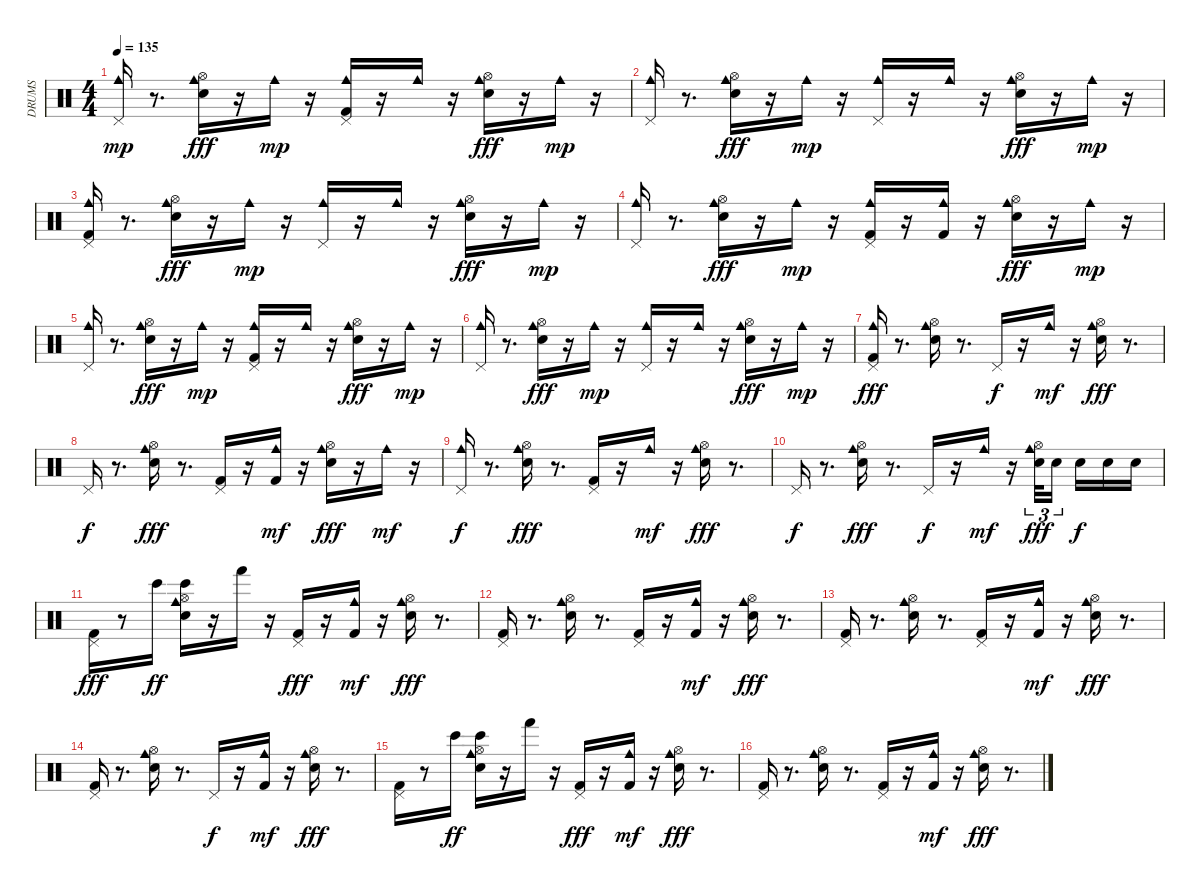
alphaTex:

\track ("DRUMS" "DRUMS") {instrument percussion}
\staff {score}
\articulation defaults
\ts (4 4)
\tempo 135
\clef neutral
\ks c
("Pedal Hi-Hat (hit)" "Cowbell medium (hit)").16{dy mp} r.8{d} ("Snare (hit) 2" "Hi-Hat (open)" "Cowbell medium (hit)").16{dy fff} r.16 "Cowbell medium (hit)".16{dy mp} r.16 ("Kick (hit) 2" "Pedal Hi-Hat (hit)" "Cowbell medium (hit)").16 r.16 "Cowbell medium (hit)".16 r.16 ("Snare (hit) 2" "Hi-Hat (open)" "Cowbell medium (hit)").16{dy fff} r.16 "Cowbell medium (hit)".16{dy mp} r.16 |
("Pedal Hi-Hat (hit)" "Cowbell medium (hit)").16 r.8{d} ("Snare (hit) 2" "Hi-Hat (open)" "Cowbell medium (hit)").16{dy fff} r.16 "Cowbell medium (hit)".16{dy mp} r.16 ("Pedal Hi-Hat (hit)" "Cowbell medium (hit)").16 r.16 "Cowbell medium (hit)".16 r.16 ("Snare (hit) 2" "Hi-Hat (open)" "Cowbell medium (hit)").16{dy fff} r.16 "Cowbell medium (hit)".16{dy mp} r.16 |
("Kick (hit) 2" "Pedal Hi-Hat (hit)" "Cowbell medium (hit)").16 r.8{d} ("Snare (hit) 2" "Hi-Hat (open)" "Cowbell medium (hit)").16{dy fff} r.16 "Cowbell medium (hit)".16{dy mp} r.16 ("Pedal Hi-Hat (hit)" "Cowbell medium (hit)").16 r.16 "Cowbell medium (hit)".16 r.16 ("Snare (hit) 2" "Hi-Hat (open)" "Cowbell medium (hit)").16{dy fff} r.16 "Cowbell medium (hit)".16{dy mp} r.16 |
("Pedal Hi-Hat (hit)" "Cowbell medium (hit)").16 r.8{d} ("Snare (hit) 2" "Hi-Hat (open)" "Cowbell medium (hit)").16{dy fff} r.16 "Cowbell medium (hit)".16{dy mp} r.16 ("Kick (hit) 2" "Pedal Hi-Hat (hit)" "Cowbell medium (hit)").16 r.16 ("Kick (hit) 2" "Cowbell medium (hit)").16 r.16 ("Snare (hit) 2" "Hi-Hat (open)" "Cowbell medium (hit)").16{dy fff} r.16 "Cowbell medium (hit)".16{dy mp} r.16 |
("Pedal Hi-Hat (hit)" "Cowbell medium (hit)").16 r.8{d} ("Snare (hit) 2" "Hi-Hat (open)" "Cowbell medium (hit)").16{dy fff} r.16 "Cowbell medium (hit)".16{dy mp} r.16 ("Kick (hit) 2" "Pedal Hi-Hat (hit)" "Cowbell medium (hit)").16 r.16 "Cowbell medium (hit)".16 r.16 ("Snare (hit) 2" "Hi-Hat (open)" "Cowbell medium (hit)").16{dy fff} r.16 "Cowbell medium (hit)".16{dy mp} r.16 |
("Pedal Hi-Hat (hit)" "Cowbell medium (hit)").16 r.8{d} ("Snare (hit) 2" "Hi-Hat (open)" "Cowbell medium (hit)").16{dy fff} r.16 "Cowbell medium (hit)".16{dy mp} r.16 ("Pedal Hi-Hat (hit)" "Cowbell medium (hit)").16 r.16 "Cowbell medium (hit)".16 r.16 ("Snare (hit) 2" "Hi-Hat (open)" "Cowbell medium (hit)").16{dy fff} r.16 "Cowbell medium (hit)".16{dy mp} r.16 |
("Kick (hit) 2" "Pedal Hi-Hat (hit)" "Cowbell medium (hit)").16{dy fff} r.8{d} ("Snare (hit) 2" "Hi-Hat (open)" "Cowbell medium (hit)").16 r.8{d} "Pedal Hi-Hat (hit)".16{dy f} r.16 "Cowbell medium (hit)".16{dy mf} r.16 ("Snare (hit) 2" "Hi-Hat (open)" "Cowbell medium (hit)").16{dy fff} r.8{d} |
"Pedal Hi-Hat (hit)".16{dy f} r.8{d} ("Snare (hit) 2" "Hi-Hat (open)" "Cowbell medium (hit)").16{dy fff} r.8{d} ("Kick (hit) 2" "Pedal Hi-Hat (hit)").16 r.16 ("Kick (hit) 2" "Cowbell medium (hit)").16{dy mf} r.16 ("Snare (hit) 2" "Hi-Hat (open)" "Cowbell medium (hit)").16{dy fff} r.16 "Cowbell medium (hit)".16{dy mf} r.16 |
("Pedal Hi-Hat (hit)" "Cowbell medium (hit)").16{dy f} r.8{d} ("Snare (hit) 2" "Hi-Hat (open)" "Cowbell medium (hit)").16{dy fff} r.8{d} ("Kick (hit) 2" "Pedal Hi-Hat (hit)").16 r.16 "Cowbell medium (hit)".16{dy mf} r.16 ("Snare (hit) 2" "Hi-Hat (open)" "Cowbell medium (hit)").16{dy fff} r.8{d} |
"Pedal Hi-Hat (hit)".16{dy f} r.8{d} ("Snare (hit) 2" "Hi-Hat (open)" "Cowbell medium (hit)").16{dy fff} r.8{d} "Pedal Hi-Hat (hit)".16{dy f} r.16 "Cowbell medium (hit)".16{dy mf} r.16 ("Snare (hit) 2" "Hi-Hat (open)" "Cowbell medium (hit)").32{tu (3 2) dy fff} "Snare (hit) 2".16{tu (3 2)} "Snare (hit) 2".16{dy f} "Snare (hit) 2".16 "Snare (hit) 2".16 |
("Kick (hit) 2" "Pedal Hi-Hat (hit)").16{dy fff} r.8 "Bongo High (hit)".16{dy ff} ("Snare (hit) 2" "Hi-Hat (open)" "Cowbell medium (hit)" "Bongo High (hit)").16 r.16 "Hand (hit)".16 r.16 ("Kick (hit) 2" "Pedal Hi-Hat (hit)").16{dy fff} r.16 ("Kick (hit) 2" "Cowbell medium (hit)").16{dy mf} r.16 ("Snare (hit) 2" "Hi-Hat (open)" "Cowbell medium (hit)").16{dy fff} r.8{d} |
("Kick (hit) 2" "Pedal Hi-Hat (hit)").16 r.8{d} ("Snare (hit) 2" "Hi-Hat (open)" "Cowbell medium (hit)").16 r.8{d} ("Kick (hit) 2" "Pedal Hi-Hat (hit)").16 r.16 ("Kick (hit) 2" "Cowbell medium (hit)").16{dy mf} r.16 ("Snare (hit) 2" "Hi-Hat (open)" "Cowbell medium (hit)").16{dy fff} r.8{d} |
("Kick (hit) 2" "Pedal Hi-Hat (hit)").16 r.8{d} ("Snare (hit) 2" "Hi-Hat (open)" "Cowbell medium (hit)").16 r.8{d} ("Kick (hit) 2" "Pedal Hi-Hat (hit)").16 r.16 ("Kick (hit) 2" "Cowbell medium (hit)").16{dy mf} r.16 ("Snare (hit) 2" "Hi-Hat (open)" "Cowbell medium (hit)").16{dy fff} r.8{d} |
("Kick (hit) 2" "Pedal Hi-Hat (hit)").16 r.8{d} ("Snare (hit) 2" "Hi-Hat (open)" "Cowbell medium (hit)").16 r.8{d} "Pedal Hi-Hat (hit)".16{dy f} r.16 ("Kick (hit) 2" "Cowbell medium (hit)").16{dy mf} r.16 ("Snare (hit) 2" "Hi-Hat (open)" "Cowbell medium (hit)").16{dy fff} r.8{d} |
("Kick (hit) 2" "Pedal Hi-Hat (hit)").16 r.8 "Bongo High (hit)".16{dy ff} ("Snare (hit) 2" "Hi-Hat (open)" "Cowbell medium (hit)" "Bongo High (hit)").16 r.16 "Hand (hit)".16 r.16 ("Kick (hit) 2" "Pedal Hi-Hat (hit)").16{dy fff} r.16 ("Kick (hit) 2" "Cowbell medium (hit)").16{dy mf} r.16 ("Snare (hit) 2" "Hi-Hat (open)" "Cowbell medium (hit)").16{dy fff} r.8{d} |
("Kick (hit) 2" "Pedal Hi-Hat (hit)").16 r.8{d} ("Snare (hit) 2" "Hi-Hat (open)" "Cowbell medium (hit)").16 r.8{d} ("Kick (hit) 2" "Pedal Hi-Hat (hit)").16 r.16 ("Kick (hit) 2" "Cowbell medium (hit)").16{dy mf} r.16 ("Snare (hit) 2" "Hi-Hat (open)" "Cowbell medium (hit)").16{dy fff} r.8{d}
